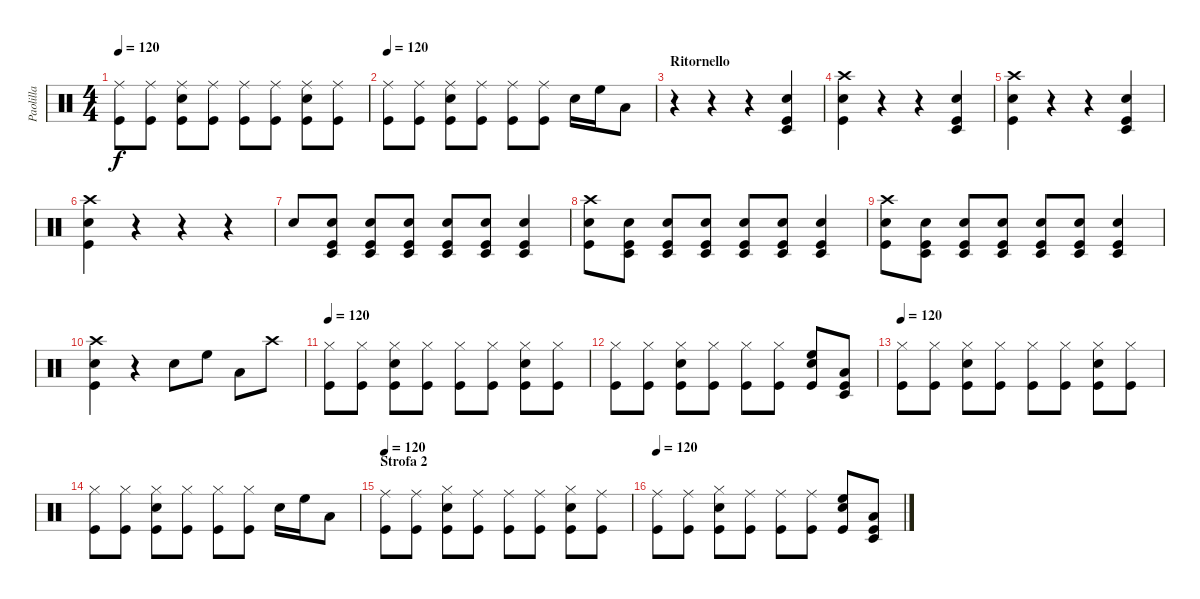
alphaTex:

\track ("Paolilla" "Paolilla") {instrument percussion}
\staff {score}
\articulation defaults
\ts (4 4)
\tempo 120
\clef neutral
\ks c
("Ride (middle)" "Kick (hit)").8{dy f} ("Ride (middle)" "Kick (hit)").8 ("Ride (middle)" "Snare (hit) 2" "Kick (hit)").8 ("Ride (middle)" "Kick (hit)").8 ("Ride (middle)" "Kick (hit)").8 ("Ride (middle)" "Kick (hit)").8 ("Ride (middle)" "Snare (hit) 2" "Kick (hit)").8 ("Ride (middle)" "Kick (hit)").8 |
\tempo 120
("Ride (middle)" "Kick (hit)").8 ("Ride (middle)" "Kick (hit)").8 ("Ride (middle)" "Snare (hit) 2" "Kick (hit)").8 ("Ride (middle)" "Kick (hit)").8 ("Ride (middle)" "Kick (hit)").8 ("Ride (middle)" "Kick (hit)").8 "Snare (hit) 2".16 "High Floor Tom (hit)".16 "Low Tom (hit)".8 |
\section ("" "Ritornello")
r.4 r.4 r.4 ("Timbale low (hit)" "Snare (hit) 2" "Kick (hit)").4 |
("Kick (hit)" "Crash high (hit)" "Snare (hit) 2").4 r.4 r.4 ("Timbale low (hit)" "Snare (hit) 2" "Kick (hit)").4 |
("Kick (hit)" "Crash high (hit)" "Snare (hit) 2").4 r.4 r.4 ("Timbale low (hit)" "Snare (hit) 2" "Kick (hit)").4 |
("Kick (hit)" "Crash high (hit)" "Snare (hit) 2").4 r.4 r.4 r.4 |
"Snare (hit) 2".8 ("Kick (hit)" "Timbale low (hit)" "Snare (hit) 2").8{volume 4} ("Kick (hit)" "Timbale low (hit)" "Snare (hit) 2").8{volume 5} ("Kick (hit)" "Timbale low (hit)" "Snare (hit) 2").8{volume 7} ("Kick (hit)" "Timbale low (hit)" "Snare (hit) 2").8{volume 9} ("Kick (hit)" "Timbale low (hit)" "Snare (hit) 2").8{volume 11} ("Timbale low (hit)" "Snare (hit) 2" "Kick (hit)").4{volume 16} |
("Crash high (hit)" "Kick (hit)" "Snare (hit) 2").8 ("Kick (hit)" "Timbale low (hit)" "Snare (hit) 2").8{volume 4} ("Kick (hit)" "Timbale low (hit)" "Snare (hit) 2").8{volume 5} ("Kick (hit)" "Timbale low (hit)" "Snare (hit) 2").8{volume 7} ("Kick (hit)" "Timbale low (hit)" "Snare (hit) 2").8{volume 9} ("Kick (hit)" "Timbale low (hit)" "Snare (hit) 2").8{volume 11} ("Timbale low (hit)" "Snare (hit) 2" "Kick (hit)").4{volume 16} |
("Kick (hit)" "Crash high (hit)" "Snare (hit) 2").8 ("Kick (hit)" "Timbale low (hit)" "Snare (hit) 2").8{volume 4} ("Kick (hit)" "Timbale low (hit)" "Snare (hit) 2").8{volume 5} ("Kick (hit)" "Timbale low (hit)" "Snare (hit) 2").8{volume 7} ("Kick (hit)" "Timbale low (hit)" "Snare (hit) 2").8{volume 9} ("Kick (hit)" "Timbale low (hit)" "Snare (hit) 2").8{volume 11} ("Timbale low (hit)" "Snare (hit) 2" "Kick (hit)").4{volume 16} |
("Kick (hit)" "Crash high (hit)" "Snare (hit) 2").4 r.4 "Snare (hit) 2".8 "High Floor Tom (hit)".8 "Low Tom (hit)".8 "Crash high (hit)".8 |
\tempo 120
("Hi-Hat (closed)" "Kick (hit)").8 ("Hi-Hat (closed)" "Kick (hit)").8 ("Hi-Hat (closed)" "Snare (hit) 2" "Kick (hit)").8 ("Hi-Hat (closed)" "Kick (hit)").8 ("Hi-Hat (closed)" "Kick (hit)").8 ("Hi-Hat (closed)" "Kick (hit)").8 ("Hi-Hat (closed)" "Snare (hit) 2" "Kick (hit)").8 ("Hi-Hat (closed)" "Kick (hit)").8 |
("Hi-Hat (closed)" "Kick (hit)").8 ("Hi-Hat (closed)" "Kick (hit)").8 ("Hi-Hat (closed)" "Snare (hit) 2" "Kick (hit)").8 ("Hi-Hat (closed)" "Kick (hit)").8 ("Hi-Hat (closed)" "Kick (hit)").8 ("Hi-Hat (closed)" "Kick (hit)").8 ("Snare (hit) 2" "High Floor Tom (hit)" "Kick (hit)").8 ("Timbale low (hit)" "Low Tom (hit)" "Kick (hit)").8 |
\tempo 120
("Hi-Hat (closed)" "Kick (hit)").8 ("Hi-Hat (closed)" "Kick (hit)").8 ("Hi-Hat (closed)" "Snare (hit) 2" "Kick (hit)").8 ("Hi-Hat (closed)" "Kick (hit)").8 ("Hi-Hat (closed)" "Kick (hit)").8 ("Hi-Hat (closed)" "Kick (hit)").8 ("Hi-Hat (closed)" "Snare (hit) 2" "Kick (hit)").8 ("Hi-Hat (closed)" "Kick (hit)").8 |
("Hi-Hat (closed)" "Kick (hit)").8 ("Hi-Hat (closed)" "Kick (hit)").8 ("Hi-Hat (closed)" "Snare (hit) 2" "Kick (hit)").8 ("Hi-Hat (closed)" "Kick (hit)").8 ("Hi-Hat (closed)" "Kick (hit)").8 ("Hi-Hat (closed)" "Kick (hit)").8 "Snare (hit) 2".16 "High Floor Tom (hit)".16 "Low Tom (hit)".8 |
\section ("" "Strofa 2")
\tempo 120
("Ride (middle)" "Kick (hit)").8 ("Ride (middle)" "Kick (hit)").8 ("Hi-Hat (closed)" "Snare (hit) 2" "Kick (hit)").8 ("Ride (middle)" "Kick (hit)").8 ("Ride (middle)" "Kick (hit)").8 ("Ride (middle)" "Kick (hit)").8 ("Hi-Hat (closed)" "Snare (hit) 2" "Kick (hit)").8 ("Ride (middle)" "Kick (hit)").8 |
\tempo 120
("Ride (middle)" "Kick (hit)").8 ("Ride (middle)" "Kick (hit)").8 ("Hi-Hat (closed)" "Snare (hit) 2" "Kick (hit)").8 ("Ride (middle)" "Kick (hit)").8 ("Ride (middle)" "Kick (hit)").8 ("Ride (middle)" "Kick (hit)").8 ("Snare (hit) 2" "High Floor Tom (hit)" "Kick (hit)").8 ("Timbale low (hit)" "Low Tom (hit)" "Kick (hit)").8
